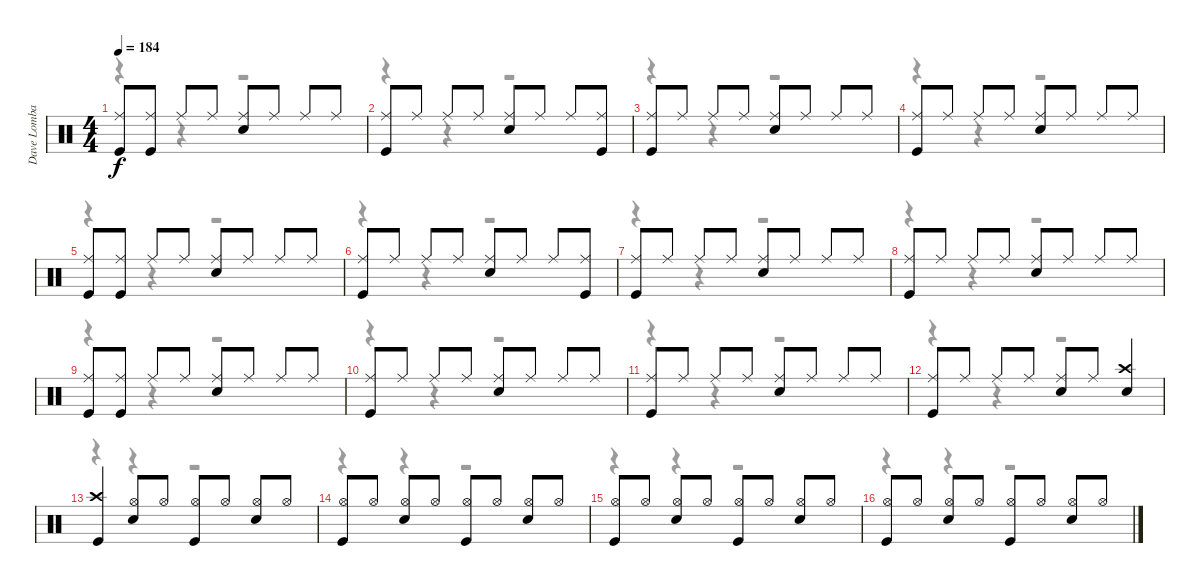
\track ("Dave Lombardo" "Dave Lomba") {instrument percussion}
\staff {score}
\articulation defaults
\voice
\ts (4 4)
\tempo 184
\clef neutral
\ks c
("Ride (middle)" "Kick (hit)").8{dy f} ("Ride (middle)" "Kick (hit)").8 "Ride (middle)".8 "Ride (middle)".8 ("Ride (middle)" "Snare (hit) 2").8 "Ride (middle)".8 "Ride (middle)".8 "Ride (middle)".8 |
("Ride (middle)" "Kick (hit)").8 "Ride (middle)".8 "Ride (middle)".8 "Ride (middle)".8 ("Ride (middle)" "Snare (hit) 2").8 "Ride (middle)".8 "Ride (middle)".8 ("Ride (middle)" "Kick (hit)").8 |
("Ride (middle)" "Kick (hit)").8 "Ride (middle)".8 "Ride (middle)".8 "Ride (middle)".8 ("Ride (middle)" "Snare (hit) 2").8 "Ride (middle)".8 "Ride (middle)".8 "Ride (middle)".8 |
("Ride (middle)" "Kick (hit)").8 "Ride (middle)".8 "Ride (middle)".8 "Ride (middle)".8 ("Ride (middle)" "Snare (hit) 2").8 "Ride (middle)".8 "Ride (middle)".8 "Ride (middle)".8 |
("Ride (middle)" "Kick (hit)").8 ("Ride (middle)" "Kick (hit)").8 "Ride (middle)".8 "Ride (middle)".8 ("Ride (middle)" "Snare (hit) 2").8 "Ride (middle)".8 "Ride (middle)".8 "Ride (middle)".8 |
("Ride (middle)" "Kick (hit)").8 "Ride (middle)".8 "Ride (middle)".8 "Ride (middle)".8 ("Ride (middle)" "Snare (hit) 2").8 "Ride (middle)".8 "Ride (middle)".8 ("Ride (middle)" "Kick (hit)").8 |
("Ride (middle)" "Kick (hit)").8 "Ride (middle)".8 "Ride (middle)".8 "Ride (middle)".8 ("Ride (middle)" "Snare (hit) 2").8 "Ride (middle)".8 "Ride (middle)".8 "Ride (middle)".8 |
("Ride (middle)" "Kick (hit)").8 "Ride (middle)".8 "Ride (middle)".8 "Ride (middle)".8 ("Ride (middle)" "Snare (hit) 2").8 "Ride (middle)".8 "Ride (middle)".8 "Ride (middle)".8 |
("Ride (middle)" "Kick (hit)").8 ("Ride (middle)" "Kick (hit)").8 "Ride (middle)".8 "Ride (middle)".8 ("Ride (middle)" "Snare (hit) 2").8 "Ride (middle)".8 "Ride (middle)".8 "Ride (middle)".8 |
("Ride (middle)" "Kick (hit)").8 "Ride (middle)".8 "Ride (middle)".8 "Ride (middle)".8 ("Ride (middle)" "Snare (hit) 2").8 "Ride (middle)".8 "Ride (middle)".8 "Ride (middle)".8 |
("Ride (middle)" "Kick (hit)").8 "Ride (middle)".8 "Ride (middle)".8 "Ride (middle)".8 ("Ride (middle)" "Snare (hit) 2").8 "Ride (middle)".8 "Ride (middle)".8 "Ride (middle)".8 |
("Ride (middle)" "Kick (hit)").8 "Ride (middle)".8 "Ride (middle)".8 "Ride (middle)".8 ("Ride (middle)" "Snare (hit) 2").8 "Ride (middle)".8 ("Crash high (hit)" "Snare (hit) 2").4 |
("Crash high (hit)" "Kick (hit)").4 ("Hi-Hat (open)" "Snare (hit) 2").8 "Hi-Hat (open)".8 ("Hi-Hat (open)" "Kick (hit)").8 "Hi-Hat (open)".8 ("Hi-Hat (open)" "Snare (hit) 2").8 "Hi-Hat (open)".8 |
("Hi-Hat (open)" "Kick (hit)").8 "Hi-Hat (open)".8 ("Hi-Hat (open)" "Snare (hit) 2").8 "Hi-Hat (open)".8 ("Hi-Hat (open)" "Kick (hit)").8 "Hi-Hat (open)".8 ("Hi-Hat (open)" "Snare (hit) 2").8 "Hi-Hat (open)".8 |
("Hi-Hat (open)" "Kick (hit)").8 "Hi-Hat (open)".8 ("Hi-Hat (open)" "Snare (hit) 2").8 "Hi-Hat (open)".8 ("Hi-Hat (open)" "Kick (hit)").8 "Hi-Hat (open)".8 ("Hi-Hat (open)" "Snare (hit) 2").8 "Hi-Hat (open)".8 |
("Hi-Hat (open)" "Kick (hit)").8 "Hi-Hat (open)".8 ("Hi-Hat (open)" "Snare (hit) 2").8 "Hi-Hat (open)".8 ("Hi-Hat (open)" "Kick (hit)").8 "Hi-Hat (open)".8 ("Hi-Hat (open)" "Snare (hit) 2").8 "Hi-Hat (open)".8
\voice
\clef neutral
\ottava regular
\simile none
\ks c
r.4{dy f} r.4 r.2 |
r.4 r.4 r.2 |
r.4 r.4 r.2 |
r.4 r.4 r.2 |
r.4 r.4 r.2 |
r.4 r.4 r.2 |
r.4 r.4 r.2 |
r.4 r.4 r.2 |
r.4 r.4 r.2 |
r.4 r.4 r.2 |
r.4 r.4 r.2 |
r.4 r.4 r.2 |
r.4 r.4 r.2 |
r.4 r.4 r.2 |
r.4 r.4 r.2 |
r.4 r.4 r.2
